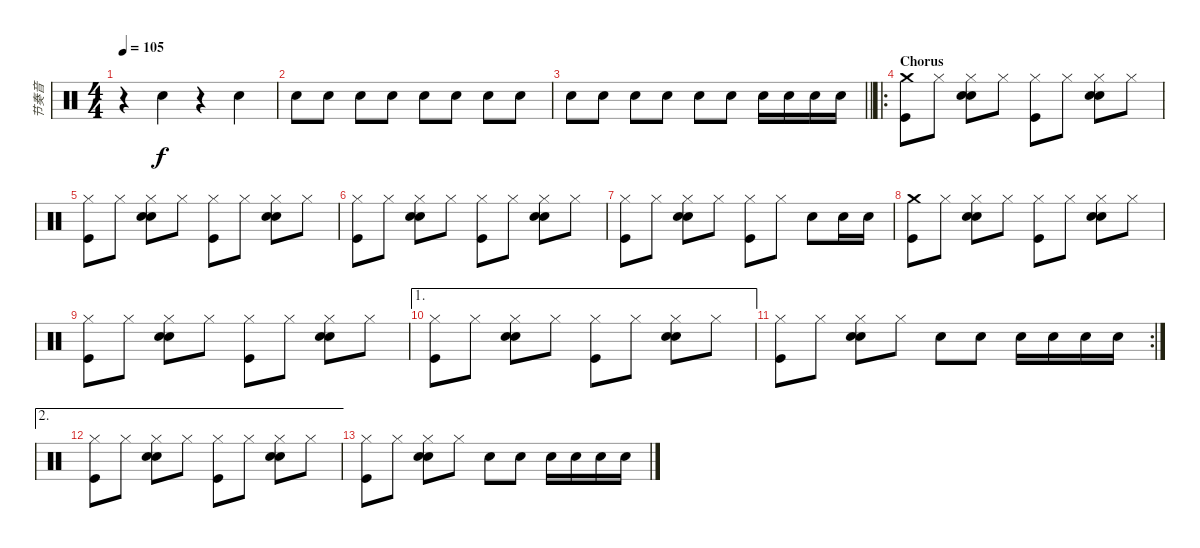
\track ("节奏音" "节奏音") {instrument percussion}
\staff {score}
\articulation defaults
\ts (4 4)
\tempo 105
\clef neutral
\ks c
r.4{dy f} "Hand Clap (hit)".4 r.4 "Hand Clap (hit)".4 |
"Snare (hit) 2".8{volume 13} "Snare (hit) 2".8 "Snare (hit) 2".8 "Snare (hit) 2".8 "Snare (hit) 2".8 "Snare (hit) 2".8 "Snare (hit) 2".8 "Snare (hit) 2".8 |
\barLineRight lightlight "Snare (hit) 2".8 "Snare (hit) 2".8 "Snare (hit) 2".8 "Snare (hit) 2".8 "Snare (hit) 2".8 "Snare (hit) 2".8 "Snare (hit) 2".16 "Snare (hit) 2".16 "Snare (hit) 2".16 "Snare (hit) 2".16
|
\ro
\section ("" "Chorus")
("Crash medium (hit)" "Kick (hit)").8 "Hi-Hat (closed)".8 ("Hi-Hat (closed)" "Hand Clap (hit)" "Snare (hit) 2").8 "Hi-Hat (closed)".8 ("Hi-Hat (closed)" "Kick (hit)").8 "Hi-Hat (closed)".8 ("Hi-Hat (closed)" "Hand Clap (hit)" "Snare (hit) 2").8 "Hi-Hat (closed)".8 |
("Hi-Hat (closed)" "Kick (hit)").8 "Hi-Hat (closed)".8 ("Hi-Hat (closed)" "Hand Clap (hit)" "Snare (hit) 2").8 "Hi-Hat (closed)".8 ("Hi-Hat (closed)" "Kick (hit)").8 "Hi-Hat (closed)".8 ("Hi-Hat (closed)" "Hand Clap (hit)" "Snare (hit) 2").8 "Hi-Hat (closed)".8 |
("Hi-Hat (closed)" "Kick (hit)").8 "Hi-Hat (closed)".8 ("Hi-Hat (closed)" "Hand Clap (hit)" "Snare (hit) 2").8 "Hi-Hat (closed)".8 ("Hi-Hat (closed)" "Kick (hit)").8 "Hi-Hat (closed)".8 ("Hi-Hat (closed)" "Hand Clap (hit)" "Snare (hit) 2").8 "Hi-Hat (closed)".8 |
("Hi-Hat (closed)" "Kick (hit)").8 "Hi-Hat (closed)".8 ("Hi-Hat (closed)" "Hand Clap (hit)" "Snare (hit) 2").8 "Hi-Hat (closed)".8 ("Hi-Hat (closed)" "Kick (hit)").8 "Hi-Hat (closed)".8 "Snare (hit) 2".8 "Snare (hit) 2".16 "Snare (hit) 2".16 |
("Crash medium (hit)" "Kick (hit)").8 "Hi-Hat (closed)".8 ("Hi-Hat (closed)" "Hand Clap (hit)" "Snare (hit) 2").8 "Hi-Hat (closed)".8 ("Hi-Hat (closed)" "Kick (hit)").8 "Hi-Hat (closed)".8 ("Hi-Hat (closed)" "Hand Clap (hit)" "Snare (hit) 2").8 "Hi-Hat (closed)".8 |
("Hi-Hat (closed)" "Kick (hit)").8 "Hi-Hat (closed)".8 ("Hi-Hat (closed)" "Hand Clap (hit)" "Snare (hit) 2").8 "Hi-Hat (closed)".8 ("Hi-Hat (closed)" "Kick (hit)").8 "Hi-Hat (closed)".8 ("Hi-Hat (closed)" "Hand Clap (hit)" "Snare (hit) 2").8 "Hi-Hat (closed)".8 |
\ae 1
("Hi-Hat (closed)" "Kick (hit)").8 "Hi-Hat (closed)".8 ("Hi-Hat (closed)" "Hand Clap (hit)" "Snare (hit) 2").8 "Hi-Hat (closed)".8 ("Hi-Hat (closed)" "Kick (hit)").8 "Hi-Hat (closed)".8 ("Hi-Hat (closed)" "Hand Clap (hit)" "Snare (hit) 2").8 "Hi-Hat (closed)".8 |
\rc 2
("Hi-Hat (closed)" "Kick (hit)").8 "Hi-Hat (closed)".8 ("Hi-Hat (closed)" "Hand Clap (hit)" "Snare (hit) 2").8 "Hi-Hat (closed)".8 "Snare (hit) 2".8 "Snare (hit) 2".8 "Snare (hit) 2".16 "Snare (hit) 2".16 "Snare (hit) 2".16 "Snare (hit) 2".16 |
\ae 2
("Hi-Hat (closed)" "Kick (hit)").8 "Hi-Hat (closed)".8 ("Hi-Hat (closed)" "Hand Clap (hit)" "Snare (hit) 2").8 "Hi-Hat (closed)".8 ("Hi-Hat (closed)" "Kick (hit)").8 "Hi-Hat (closed)".8 ("Hi-Hat (closed)" "Hand Clap (hit)" "Snare (hit) 2").8 "Hi-Hat (closed)".8 |
("Hi-Hat (closed)" "Kick (hit)").8 "Hi-Hat (closed)".8 ("Hi-Hat (closed)" "Hand Clap (hit)" "Snare (hit) 2").8 "Hi-Hat (closed)".8 "Snare (hit) 2".8 "Snare (hit) 2".8 "Snare (hit) 2".16 "Snare (hit) 2".16 "Snare (hit) 2".16 "Snare (hit) 2".16
